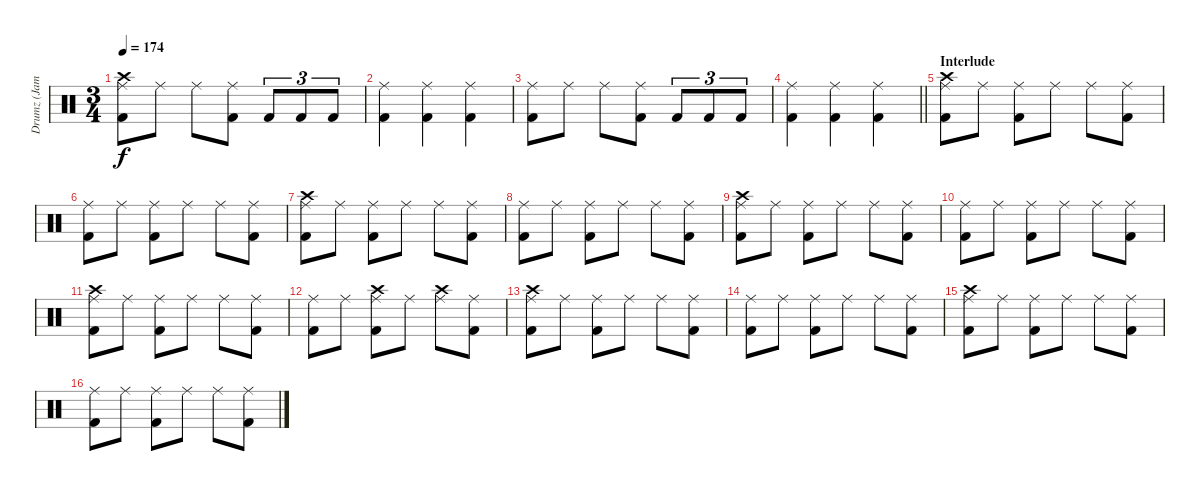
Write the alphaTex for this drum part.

\track ("Drumz (James Kottak)" "Drumz (Jam") {instrument percussion}
\staff {score}
\articulation defaults
\ts (3 4)
\tempo 174
\clef neutral
\ks c
("Ride (middle)" "Crash high (hit)" "Kick (hit) 2").8{dy f} "Ride (middle)".8 "Ride (middle)".8 ("Ride (middle)" "Kick (hit) 2").8 "Kick (hit) 2".8{tu (3 2)} "Kick (hit) 2".8{tu (3 2)} "Kick (hit) 2".8{tu (3 2)} |
("Ride (middle)" "Kick (hit) 2").4 ("Kick (hit) 2" "Ride (middle)").4 ("Ride (middle)" "Kick (hit) 2").4 |
("Ride (middle)" "Kick (hit) 2").8 "Ride (middle)".8 "Ride (middle)".8 ("Ride (middle)" "Kick (hit) 2").8 "Kick (hit) 2".8{tu (3 2)} "Kick (hit) 2".8{tu (3 2)} "Kick (hit) 2".8{tu (3 2)} |
\barLineRight lightlight
("Ride (middle)" "Kick (hit) 2").4 ("Kick (hit) 2" "Ride (middle)").4 ("Ride (middle)" "Kick (hit) 2").4 |
\section ("" "Interlude")
("Ride (middle)" "Crash high (hit)" "Kick (hit) 2").8 "Ride (middle)".8 ("Ride (middle)" "Kick (hit) 2").8 "Ride (middle)".8 "Ride (middle)".8 ("Ride (middle)" "Kick (hit) 2").8 |
("Ride (middle)" "Kick (hit) 2").8 "Ride (middle)".8 ("Ride (middle)" "Kick (hit) 2").8 "Ride (middle)".8 "Ride (middle)".8 ("Ride (middle)" "Kick (hit) 2").8 |
("Ride (middle)" "Crash high (hit)" "Kick (hit) 2").8 "Ride (middle)".8 ("Ride (middle)" "Kick (hit) 2").8 "Ride (middle)".8 "Ride (middle)".8 ("Ride (middle)" "Kick (hit) 2").8 |
("Ride (middle)" "Kick (hit) 2").8 "Ride (middle)".8 ("Ride (middle)" "Kick (hit) 2").8 "Ride (middle)".8 "Ride (middle)".8 ("Ride (middle)" "Kick (hit) 2").8 |
("Ride (middle)" "Crash high (hit)" "Kick (hit) 2").8 "Ride (middle)".8 ("Ride (middle)" "Kick (hit) 2").8 "Ride (middle)".8 "Ride (middle)".8 ("Ride (middle)" "Kick (hit) 2").8 |
("Ride (middle)" "Kick (hit) 2").8 "Ride (middle)".8 ("Ride (middle)" "Kick (hit) 2").8 "Ride (middle)".8 "Ride (middle)".8 ("Ride (middle)" "Kick (hit) 2").8 |
("Ride (middle)" "Crash high (hit)" "Kick (hit) 2").8 "Ride (middle)".8 ("Ride (middle)" "Kick (hit) 2").8 "Ride (middle)".8 "Ride (middle)".8 ("Ride (middle)" "Kick (hit) 2").8 |
("Ride (middle)" "Kick (hit) 2").8 "Ride (middle)".8 ("Ride (middle)" "Crash high (hit)" "Kick (hit) 2").8 "Ride (middle)".8 ("Ride (middle)" "Crash high (hit)").8 ("Ride (middle)" "Kick (hit) 2").8 |
("Ride (middle)" "Crash high (hit)" "Kick (hit) 2").8 "Ride (middle)".8 ("Ride (middle)" "Kick (hit) 2").8 "Ride (middle)".8 "Ride (middle)".8 ("Ride (middle)" "Kick (hit) 2").8 |
("Ride (middle)" "Kick (hit) 2").8 "Ride (middle)".8 ("Ride (middle)" "Kick (hit) 2").8 "Ride (middle)".8 "Ride (middle)".8 ("Ride (middle)" "Kick (hit) 2").8 |
("Ride (middle)" "Crash high (hit)" "Kick (hit) 2").8 "Ride (middle)".8 ("Ride (middle)" "Kick (hit) 2").8 "Ride (middle)".8 "Ride (middle)".8 ("Ride (middle)" "Kick (hit) 2").8 |
("Ride (middle)" "Kick (hit) 2").8 "Ride (middle)".8 ("Ride (middle)" "Kick (hit) 2").8 "Ride (middle)".8 "Ride (middle)".8 ("Ride (middle)" "Kick (hit) 2").8
